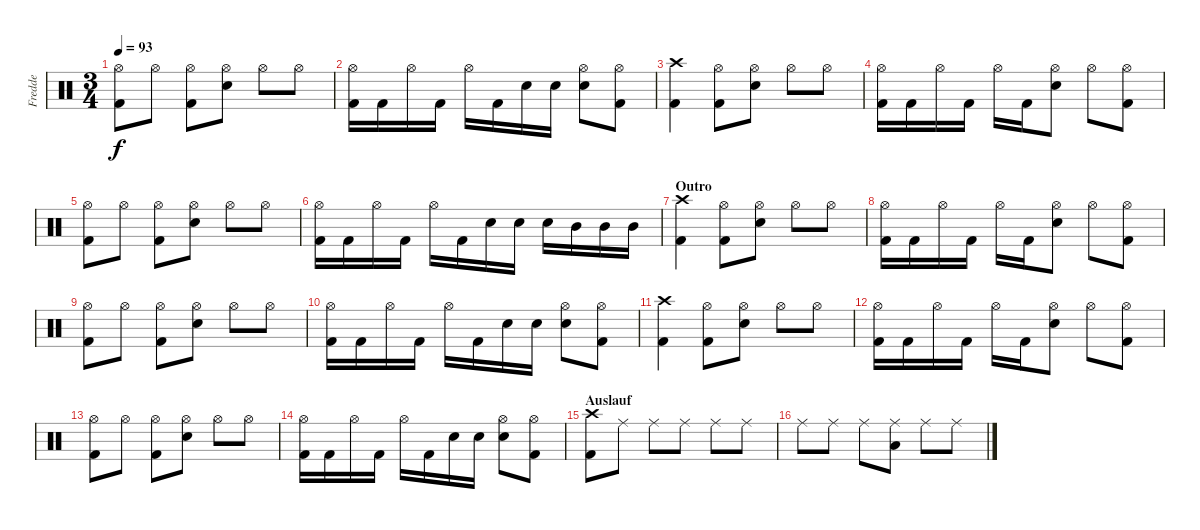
\track ("Fredde" "Fredde") {instrument percussion}
\staff {score}
\articulation defaults
\ts (3 4)
\tempo 93
\clef neutral
\ks c
("Hi-Hat (open)" "Kick (hit) 2").8{dy f} "Hi-Hat (open)".8 ("Hi-Hat (open)" "Kick (hit) 2").8 ("Hi-Hat (open)" "Snare (hit) 2").8 "Hi-Hat (open)".8 "Hi-Hat (open)".8 |
("Hi-Hat (open)" "Kick (hit) 2").16 "Kick (hit) 2".16 "Hi-Hat (open)".16 "Kick (hit) 2".16 "Hi-Hat (open)".16 "Kick (hit) 2".16 "Snare (hit) 2".16 "Snare (hit) 2".16 ("Hi-Hat (open)" "Snare (hit) 2").8 ("Hi-Hat (open)" "Kick (hit) 2").8 |
("Crash high (hit)" "Kick (hit) 2").4 ("Hi-Hat (open)" "Kick (hit) 2").8 ("Hi-Hat (open)" "Snare (hit) 2").8 "Hi-Hat (open)".8 "Hi-Hat (open)".8 |
("Hi-Hat (open)" "Kick (hit) 2").16 "Kick (hit) 2".16 "Hi-Hat (open)".16 "Kick (hit) 2".16 "Hi-Hat (open)".16 "Kick (hit) 2".16 ("Hi-Hat (open)" "Snare (hit) 2").8 "Hi-Hat (open)".8 ("Hi-Hat (open)" "Kick (hit) 2").8 |
("Hi-Hat (open)" "Kick (hit) 2").8 "Hi-Hat (open)".8 ("Hi-Hat (open)" "Kick (hit) 2").8 ("Hi-Hat (open)" "Snare (hit) 2").8 "Hi-Hat (open)".8 "Hi-Hat (open)".8 |
("Hi-Hat (open)" "Kick (hit) 2").16 "Kick (hit) 2".16 "Hi-Hat (open)".16 "Kick (hit) 2".16 "Hi-Hat (open)".16 "Kick (hit) 2".16 "Snare (hit) 2".16 "Snare (hit) 2".16 "Snare (hit) 2".16 "Mid Tom (hit)".16 "Mid Tom (hit)".16 "Mid Tom (hit)".16 |
\section ("" "Outro")
("Crash high (hit)" "Kick (hit) 2").4 ("Hi-Hat (open)" "Kick (hit) 2").8 ("Hi-Hat (open)" "Snare (hit) 2").8 "Hi-Hat (open)".8 "Hi-Hat (open)".8 |
("Hi-Hat (open)" "Kick (hit) 2").16 "Kick (hit) 2".16 "Hi-Hat (open)".16 "Kick (hit) 2".16 "Hi-Hat (open)".16 "Kick (hit) 2".16 ("Hi-Hat (open)" "Snare (hit) 2").8 "Hi-Hat (open)".8 ("Hi-Hat (open)" "Kick (hit) 2").8 |
("Hi-Hat (open)" "Kick (hit) 2").8 "Hi-Hat (open)".8 ("Hi-Hat (open)" "Kick (hit) 2").8 ("Hi-Hat (open)" "Snare (hit) 2").8 "Hi-Hat (open)".8 "Hi-Hat (open)".8 |
("Hi-Hat (open)" "Kick (hit) 2").16 "Kick (hit) 2".16 "Hi-Hat (open)".16 "Kick (hit) 2".16 "Hi-Hat (open)".16 "Kick (hit) 2".16 "Snare (hit) 2".16 "Snare (hit) 2".16 ("Hi-Hat (open)" "Snare (hit) 2").8 ("Hi-Hat (open)" "Kick (hit) 2").8 |
("Crash high (hit)" "Kick (hit) 2").4 ("Hi-Hat (open)" "Kick (hit) 2").8 ("Hi-Hat (open)" "Snare (hit) 2").8 "Hi-Hat (open)".8 "Hi-Hat (open)".8 |
("Hi-Hat (open)" "Kick (hit) 2").16 "Kick (hit) 2".16 "Hi-Hat (open)".16 "Kick (hit) 2".16 "Hi-Hat (open)".16 "Kick (hit) 2".16 ("Hi-Hat (open)" "Snare (hit) 2").8 "Hi-Hat (open)".8 ("Hi-Hat (open)" "Kick (hit) 2").8 |
("Hi-Hat (open)" "Kick (hit) 2").8 "Hi-Hat (open)".8 ("Hi-Hat (open)" "Kick (hit) 2").8 ("Hi-Hat (open)" "Snare (hit) 2").8 "Hi-Hat (open)".8 "Hi-Hat (open)".8 |
("Hi-Hat (open)" "Kick (hit) 2").16 "Kick (hit) 2".16 "Hi-Hat (open)".16 "Kick (hit) 2".16 "Hi-Hat (open)".16 "Kick (hit) 2".16 "Snare (hit) 2".16 "Snare (hit) 2".16 ("Hi-Hat (open)" "Snare (hit) 2").8 ("Hi-Hat (open)" "Kick (hit) 2").8 |
\section ("" "Auslauf")
("Crash high (hit)" "Kick (hit) 2").8 "Ride (middle)".8 "Ride (middle)".8 "Ride (middle)".8 "Ride (middle)".8 "Ride (middle)".8 |
"Ride (middle)".8 "Ride (middle)".8 "Ride (middle)".8 ("Ride (middle)" "Low Tom (hit)").8 "Ride (middle)".8 "Ride (middle)".8
